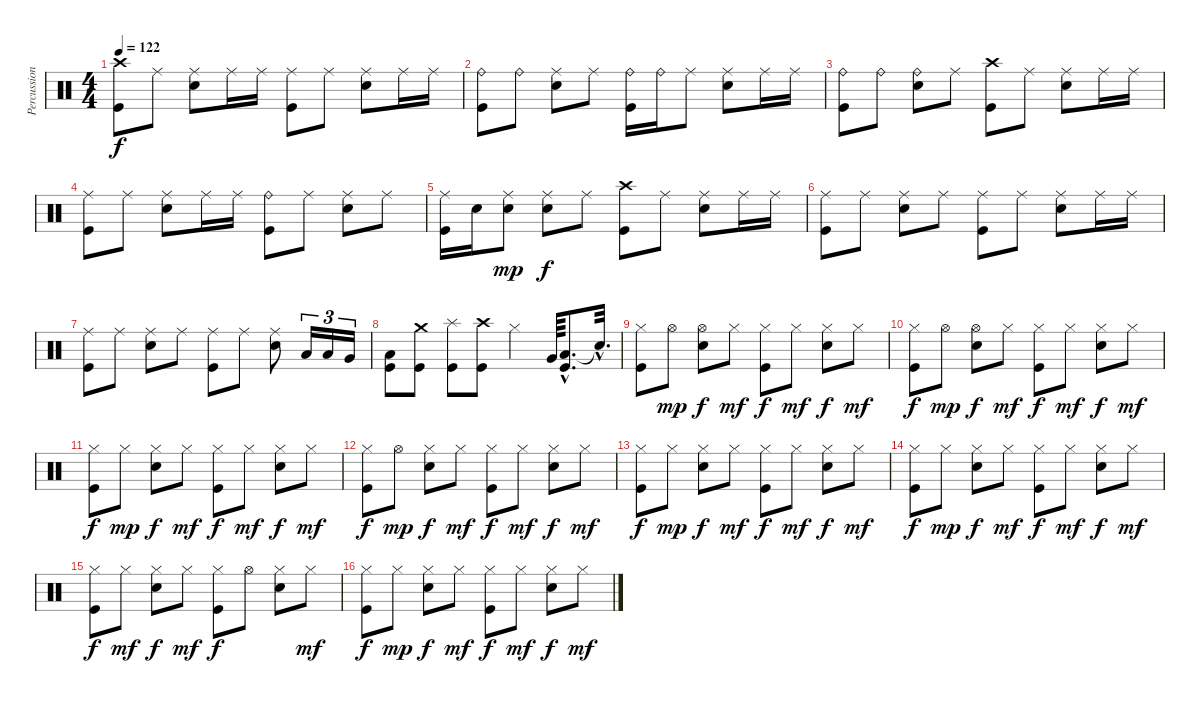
\track ("Percussioni" "Percussion") {instrument percussion}
\staff {score}
\articulation defaults
\ts (4 4)
\tempo 122
\clef neutral
\ks c
("Crash high (hit)" "Kick (hit)").8{dy f} "Ride (middle)".8 ("Ride (middle)" "Snare (hit) 2").8 "Ride (middle)".16 "Ride (middle)".16 ("Ride (middle)" "Kick (hit)").8 "Ride (middle)".8 ("Ride (middle)" "Snare (hit) 2").8 "Ride (middle)".16 "Ride (middle)".16 |
("Ride (bell)" "Kick (hit)").8 "Ride (bell)".8 ("Ride (middle)" "Snare (hit) 2").8 "Ride (middle)".8 ("Ride (bell)" "Kick (hit)").16 "Ride (bell)".16 "Ride (middle)".8 ("Ride (middle)" "Snare (hit) 2").8 "Ride (middle)".16 "Ride (middle)".16 |
("Ride (bell)" "Kick (hit)").8 "Ride (bell)".8 ("Ride (bell)" "Snare (hit) 2").8 "Ride (middle)".8 ("Crash high (hit)" "Kick (hit)").8 "Ride (middle)".8 ("Ride (middle)" "Snare (hit) 2").8 "Ride (middle)".16 "Ride (middle)".16 |
("Ride (middle)" "Kick (hit)").8 "Ride (middle)".8 ("Ride (middle)" "Snare (hit) 2").8 "Ride (middle)".16 "Ride (middle)".16 ("Ride (bell)" "Kick (hit)").8 "Ride (middle)".8 ("Ride (middle)" "Snare (hit) 2").8 "Ride (middle)".8 |
("Ride (middle)" "Kick (hit)").16 "Snare (hit) 2".16 ("Ride (middle)" "Snare (hit) 2").8{dy mp} ("Ride (middle)" "Snare (hit) 2").8{dy f} "Ride (middle)".8 ("Crash high (hit)" "Kick (hit)").8 "Ride (middle)".8 ("Ride (middle)" "Snare (hit) 2").8 "Ride (middle)".16 "Ride (middle)".16 |
("Ride (middle)" "Kick (hit)").8 "Ride (middle)".8 ("Ride (middle)" "Snare (hit) 2").8 "Ride (middle)".8 ("Ride (middle)" "Kick (hit)").8 "Ride (middle)".8 ("Ride (middle)" "Snare (hit) 2").8 "Ride (middle)".16 "Ride (middle)".16 |
("Ride (middle)" "Kick (hit)").8 "Ride (middle)".8 ("Ride (middle)" "Snare (hit) 2").8 "Ride (middle)".8 ("Ride (middle)" "Kick (hit)").8 "Ride (middle)".8 ("Ride (middle)" "Snare (hit) 2").8 "Low Tom (hit)".16{tu (3 2)} "Low Tom (hit)".16{tu (3 2)} "Very Low Tom (hit)".16{tu (3 2)} |
("Low Floor Tom (hit)" "Kick (hit)").8 ("Crash medium (hit)" "Kick (hit)").8 ("Splash (hit)" "Kick (hit)").8 ("Crash high (hit)" "Kick (hit)").8 "Hi-Hat (closed)".4 "Very Low Tom (hit)".64 ("Low Floor Tom (hit)"{hac} "Kick (hit)"{hac}).8{d} "Snare (hit)"{hac t}.32{d} |
("Hi-Hat (closed)" "Kick (hit)").8 "Hi-Hat (open)".8{dy mp} ("Hi-Hat (open)" "Snare (hit) 2").8{dy f} "Hi-Hat (closed)".8{dy mf} ("Hi-Hat (closed)" "Kick (hit)").8{dy f} "Hi-Hat (closed)".8{dy mf} ("Hi-Hat (closed)" "Snare (hit) 2").8{dy f} "Hi-Hat (closed)".8{dy mf} |
("Hi-Hat (closed)" "Kick (hit)").8{dy f} "Hi-Hat (open)".8{dy mp} ("Hi-Hat (open)" "Snare (hit) 2").8{dy f} "Hi-Hat (closed)".8{dy mf} ("Hi-Hat (closed)" "Kick (hit)").8{dy f} "Hi-Hat (closed)".8{dy mf} ("Hi-Hat (closed)" "Snare (hit) 2").8{dy f} "Hi-Hat (closed)".8{dy mf} |
("Hi-Hat (closed)" "Kick (hit)").8{dy f} "Hi-Hat (closed)".8{dy mp} ("Hi-Hat (closed)" "Snare (hit) 2").8{dy f} "Hi-Hat (closed)".8{dy mf} ("Hi-Hat (closed)" "Kick (hit)").8{dy f} "Hi-Hat (closed)".8{dy mf} ("Hi-Hat (closed)" "Snare (hit) 2").8{dy f} "Hi-Hat (closed)".8{dy mf} |
("Hi-Hat (closed)" "Kick (hit)").8{dy f} "Hi-Hat (open)".8{dy mp} ("Hi-Hat (closed)" "Snare (hit) 2").8{dy f} "Hi-Hat (closed)".8{dy mf} ("Hi-Hat (closed)" "Kick (hit)").8{dy f} "Hi-Hat (closed)".8{dy mf} ("Hi-Hat (closed)" "Snare (hit) 2").8{dy f} "Hi-Hat (closed)".8{dy mf} |
("Hi-Hat (closed)" "Kick (hit)").8{dy f} "Hi-Hat (closed)".8{dy mp} ("Hi-Hat (closed)" "Snare (hit) 2").8{dy f} "Hi-Hat (closed)".8{dy mf} ("Hi-Hat (closed)" "Kick (hit)").8{dy f} "Hi-Hat (closed)".8{dy mf} ("Hi-Hat (closed)" "Snare (hit) 2").8{dy f} "Hi-Hat (closed)".8{dy mf} |
("Hi-Hat (closed)" "Kick (hit)").8{dy f} "Hi-Hat (closed)".8{dy mp} ("Hi-Hat (closed)" "Snare (hit) 2").8{dy f} "Hi-Hat (closed)".8{dy mf} ("Hi-Hat (closed)" "Kick (hit)").8{dy f} "Hi-Hat (closed)".8{dy mf} ("Hi-Hat (closed)" "Snare (hit) 2").8{dy f} "Hi-Hat (closed)".8{dy mf} |
("Hi-Hat (closed)" "Kick (hit)").8{dy f} "Hi-Hat (closed)".8{dy mf} ("Hi-Hat (closed)" "Snare (hit) 2").8{dy f} "Hi-Hat (closed)".8{dy mf} ("Hi-Hat (closed)" "Kick (hit)").8{dy f} "Hi-Hat (open)".8 ("Hi-Hat (closed)" "Snare (hit) 2").8 "Hi-Hat (closed)".8{dy mf} |
("Hi-Hat (closed)" "Kick (hit)").8{dy f} "Hi-Hat (closed)".8{dy mp} ("Hi-Hat (closed)" "Snare (hit) 2").8{dy f} "Hi-Hat (closed)".8{dy mf} ("Hi-Hat (closed)" "Kick (hit)").8{dy f} "Hi-Hat (closed)".8{dy mf} ("Hi-Hat (closed)" "Snare (hit) 2").8{dy f} "Hi-Hat (closed)".8{dy mf}
